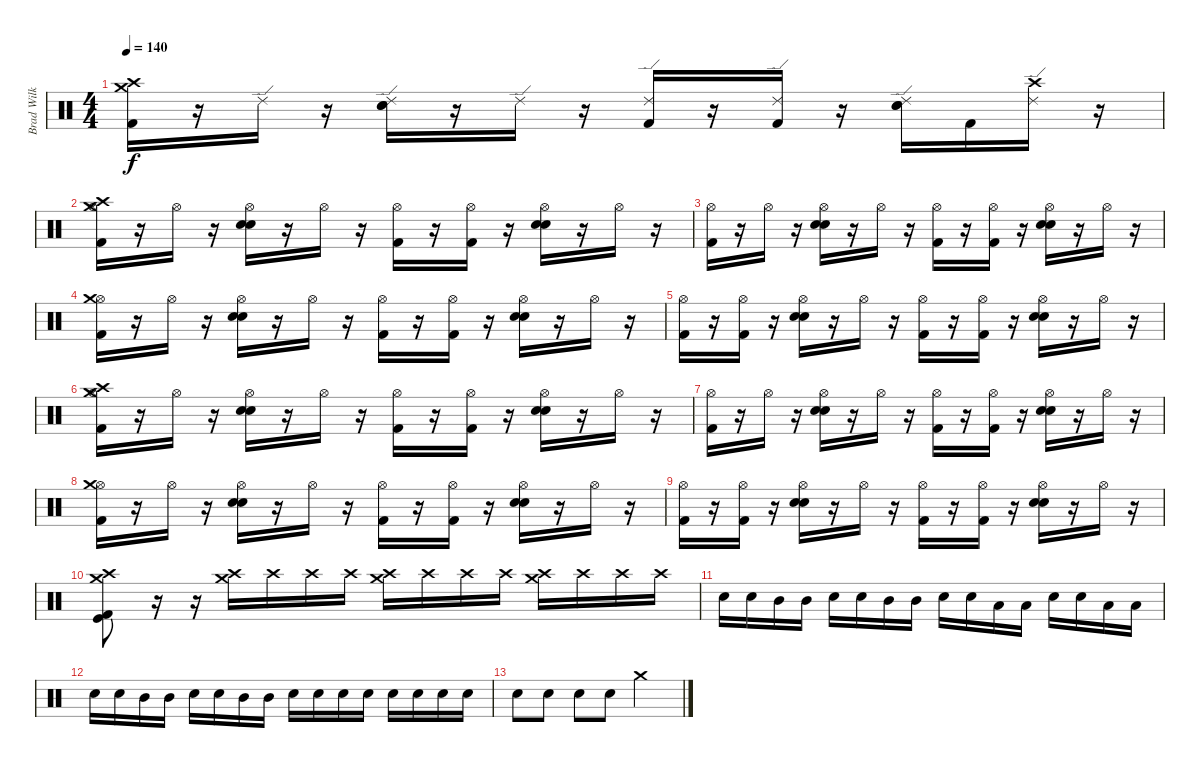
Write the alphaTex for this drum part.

\track ("Brad Wilk" "Brad Wilk") {instrument percussion}
\staff {score}
\articulation defaults
\ts (4 4)
\tempo 140
\clef neutral
\ks c
("Crash medium (hit)" "Crash high (hit)" "Kick (hit) 2").16{dy f} r.16 "Ride (edge) 2".16 r.16 ("Ride (edge) 2" "Electric Snare (hit)" "Snare (hit) 2").16 r.16 "Ride (edge) 2".16 r.16 ("Ride (edge) 2" "Kick (hit) 2").16 r.16 ("Ride (edge) 2" "Kick (hit) 2").16 r.16 ("Ride (edge) 2" "Electric Snare (hit)" "Snare (hit) 2").16 "Kick (hit) 2".16 ("Ride (edge) 2" "Crash high (hit)").16 r.16 |
("Hi-Hat (open)" "Crash medium (hit)" "Crash high (hit)" "Kick (hit) 2").16 r.16 "Hi-Hat (open)".16 r.16 ("Hi-Hat (open)" "Electric Snare (hit)" "Snare (hit) 2").16 r.16 "Hi-Hat (open)".16 r.16 ("Hi-Hat (open)" "Kick (hit) 2").16 r.16 ("Hi-Hat (open)" "Kick (hit) 2").16 r.16 ("Hi-Hat (open)" "Electric Snare (hit)" "Snare (hit) 2").16 r.16 "Hi-Hat (open)".16 r.16 |
("Hi-Hat (open)" "Kick (hit) 2").16 r.16 "Hi-Hat (open)".16 r.16 ("Hi-Hat (open)" "Electric Snare (hit)" "Snare (hit) 2").16 r.16 "Hi-Hat (open)".16 r.16 ("Hi-Hat (open)" "Kick (hit) 2").16 r.16 ("Hi-Hat (open)" "Kick (hit) 2").16 r.16 ("Hi-Hat (open)" "Electric Snare (hit)" "Snare (hit) 2").16 r.16 "Hi-Hat (open)".16 r.16 |
("Hi-Hat (open)" "Crash medium (hit)" "Kick (hit) 2").16 r.16 "Hi-Hat (open)".16 r.16 ("Hi-Hat (open)" "Electric Snare (hit)" "Snare (hit) 2").16 r.16 "Hi-Hat (open)".16 r.16 ("Hi-Hat (open)" "Kick (hit) 2").16 r.16 ("Hi-Hat (open)" "Kick (hit) 2").16 r.16 ("Hi-Hat (open)" "Electric Snare (hit)" "Snare (hit) 2").16 r.16 "Hi-Hat (open)".16 r.16 |
("Hi-Hat (open)" "Kick (hit) 2").16 r.16 ("Hi-Hat (open)" "Kick (hit) 2").16 r.16 ("Hi-Hat (open)" "Electric Snare (hit)" "Snare (hit) 2").16 r.16 "Hi-Hat (open)".16 r.16 ("Hi-Hat (open)" "Kick (hit) 2").16 r.16 ("Hi-Hat (open)" "Kick (hit) 2").16 r.16 ("Hi-Hat (open)" "Electric Snare (hit)" "Snare (hit) 2").16 r.16 "Hi-Hat (open)".16 r.16 |
("Hi-Hat (open)" "Crash medium (hit)" "Crash high (hit)" "Kick (hit) 2").16 r.16 "Hi-Hat (open)".16 r.16 ("Hi-Hat (open)" "Electric Snare (hit)" "Snare (hit) 2").16 r.16 "Hi-Hat (open)".16 r.16 ("Hi-Hat (open)" "Kick (hit) 2").16 r.16 ("Hi-Hat (open)" "Kick (hit) 2").16 r.16 ("Hi-Hat (open)" "Electric Snare (hit)" "Snare (hit) 2").16 r.16 "Hi-Hat (open)".16 r.16 |
("Hi-Hat (open)" "Kick (hit) 2").16 r.16 "Hi-Hat (open)".16 r.16 ("Hi-Hat (open)" "Electric Snare (hit)" "Snare (hit) 2").16 r.16 "Hi-Hat (open)".16 r.16 ("Hi-Hat (open)" "Kick (hit) 2").16 r.16 ("Hi-Hat (open)" "Kick (hit) 2").16 r.16 ("Hi-Hat (open)" "Electric Snare (hit)" "Snare (hit) 2").16 r.16 "Hi-Hat (open)".16 r.16 |
("Hi-Hat (open)" "Crash medium (hit)" "Kick (hit) 2").16 r.16 "Hi-Hat (open)".16 r.16 ("Hi-Hat (open)" "Electric Snare (hit)" "Snare (hit) 2").16 r.16 "Hi-Hat (open)".16 r.16 ("Hi-Hat (open)" "Kick (hit) 2").16 r.16 ("Hi-Hat (open)" "Kick (hit) 2").16 r.16 ("Hi-Hat (open)" "Electric Snare (hit)" "Snare (hit) 2").16 r.16 "Hi-Hat (open)".16 r.16 |
("Hi-Hat (open)" "Kick (hit) 2").16 r.16 ("Hi-Hat (open)" "Kick (hit) 2").16 r.16 ("Hi-Hat (open)" "Electric Snare (hit)" "Snare (hit) 2").16 r.16 "Hi-Hat (open)".16 r.16 ("Hi-Hat (open)" "Kick (hit) 2").16 r.16 ("Hi-Hat (open)" "Kick (hit) 2").16 r.16 ("Hi-Hat (open)" "Electric Snare (hit)" "Snare (hit) 2").16 r.16 "Hi-Hat (open)".16 r.16 |
("Crash medium (hit)" "Crash high (hit)" "Kick (hit)" "Kick (hit) 2").8 r.16 r.16 ("Crash medium (hit)" "Crash high (hit)").16 "Crash high (hit)".16 "Crash high (hit)".16 "Crash high (hit)".16 ("Crash medium (hit)" "Crash high (hit)").16 "Crash high (hit)".16 "Crash high (hit)".16 "Crash high (hit)".16 ("Crash medium (hit)" "Crash high (hit)").16 "Crash high (hit)".16 "Crash high (hit)".16 "Crash high (hit)".16 |
"Snare (hit) 2".16 "Snare (hit) 2".16 "Mid Tom (hit)".16 "Mid Tom (hit)".16 "Snare (hit) 2".16 "Snare (hit) 2".16 "Mid Tom (hit)".16 "Mid Tom (hit)".16 "Snare (hit) 2".16 "Snare (hit) 2".16 "Low Tom (hit)".16 "Low Tom (hit)".16 "Snare (hit) 2".16 "Snare (hit) 2".16 "Low Tom (hit)".16 "Low Tom (hit)".16 |
"Snare (hit) 2".16 "Snare (hit) 2".16 "Mid Tom (hit)".16 "Mid Tom (hit)".16 "Snare (hit) 2".16 "Snare (hit) 2".16 "Mid Tom (hit)".16 "Mid Tom (hit)".16 "Electric Snare (hit)".16 "Electric Snare (hit)".16 "Electric Snare (hit)".16 "Electric Snare (hit)".16 "Electric Snare (hit)".16 "Electric Snare (hit)".16 "Electric Snare (hit)".16 "Electric Snare (hit)".16 |
"Electric Snare (hit)".8 "Electric Snare (hit)".8 "Electric Snare (hit)".8 "Electric Snare (hit)".8 "Crash medium (hit)".2
